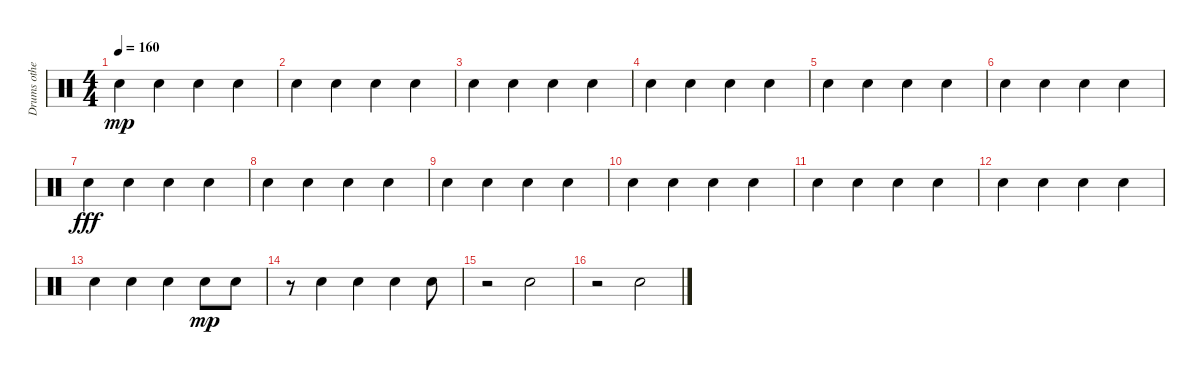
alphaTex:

\track ("Drums others" "Drums othe") {instrument percussion}
\staff {score}
\articulation defaults
\ts (4 4)
\tempo 160
\clef neutral
\ks c "Snare (hit) 2".4{dy mp} "Snare (hit) 2".4 "Snare (hit) 2".4 "Snare (hit) 2".4
|
"Snare (hit) 2".4 "Snare (hit) 2".4 "Snare (hit) 2".4 "Snare (hit) 2".4 |
"Snare (hit) 2".4 "Snare (hit) 2".4 "Snare (hit) 2".4 "Snare (hit) 2".4 |
"Snare (hit) 2".4 "Snare (hit) 2".4 "Snare (hit) 2".4 "Snare (hit) 2".4 |
"Snare (hit) 2".4 "Snare (hit) 2".4 "Snare (hit) 2".4 "Snare (hit) 2".4 |
"Snare (hit) 2".4 "Snare (hit) 2".4 "Snare (hit) 2".4 "Snare (hit) 2".4 |
"Snare (hit) 2".4{dy fff} "Snare (hit) 2".4 "Snare (hit) 2".4 "Snare (hit) 2".4 |
"Snare (hit) 2".4 "Snare (hit) 2".4 "Snare (hit) 2".4 "Snare (hit) 2".4 |
"Snare (hit) 2".4 "Snare (hit) 2".4 "Snare (hit) 2".4 "Snare (hit) 2".4 |
"Snare (hit) 2".4 "Snare (hit) 2".4 "Snare (hit) 2".4 "Snare (hit) 2".4 |
"Snare (hit) 2".4 "Snare (hit) 2".4 "Snare (hit) 2".4 "Snare (hit) 2".4 |
"Snare (hit) 2".4 "Snare (hit) 2".4 "Snare (hit) 2".4 "Snare (hit) 2".4 |
"Snare (hit) 2".4 "Snare (hit) 2".4 "Snare (hit) 2".4 "Snare (hit) 2".8{dy mp} "Snare (hit) 2".8 |
r.8 "Snare (hit) 2".4 "Snare (hit) 2".4 "Snare (hit) 2".4 "Snare (hit) 2".8 |
r.2 "Snare (hit) 2".2 |
r.2 "Snare (hit) 2".2
